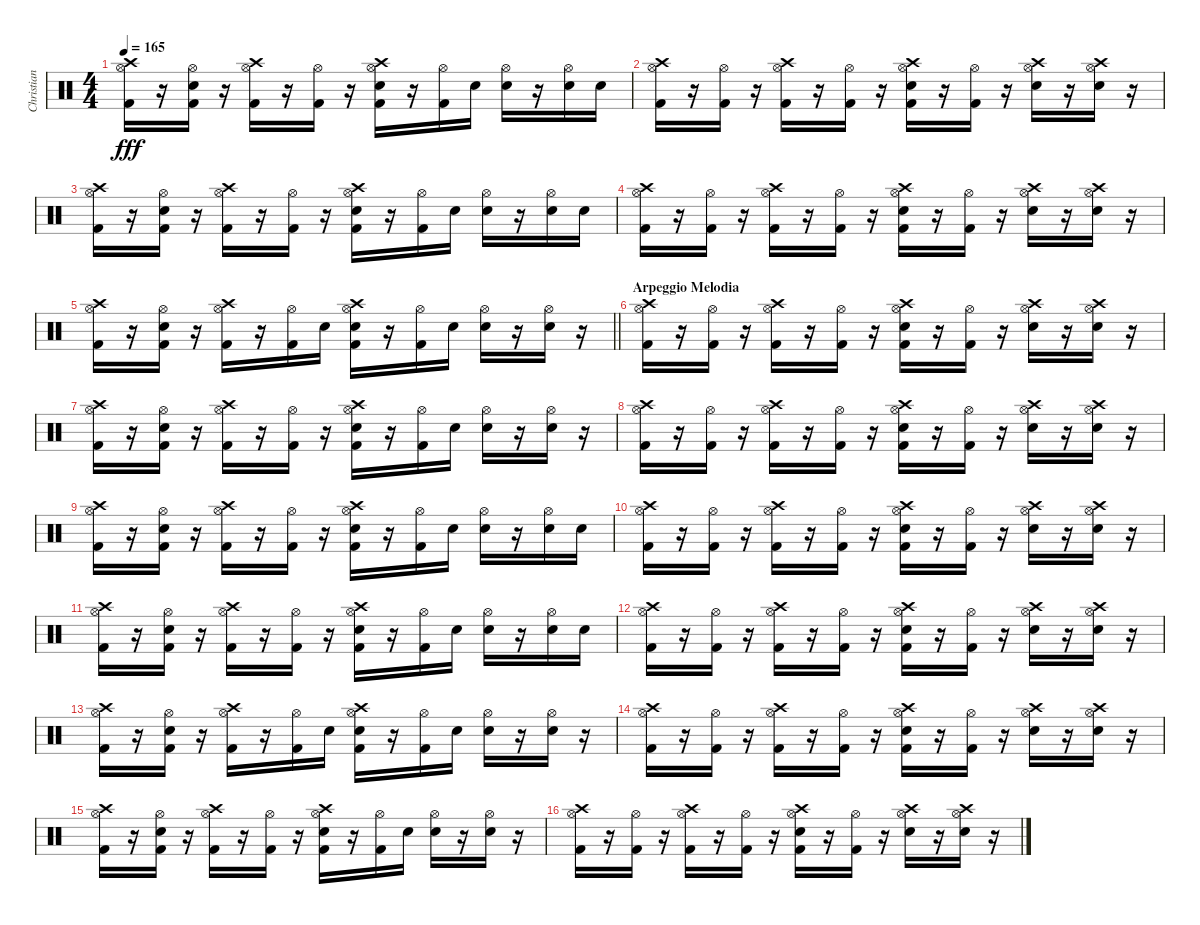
\track ("Christian Coma Mora (CC)" "Christian ") {instrument percussion}
\staff {score}
\articulation defaults
\ts (4 4)
\tempo 165
\clef neutral
\ks c
("Crash high (hit)" "Hi-Hat (open)" "Kick (hit) 2").16{dy fff} r.16 ("Hi-Hat (open)" "Snare (hit) 2" "Kick (hit) 2").16 r.16 ("Crash high (hit)" "Hi-Hat (open)" "Kick (hit) 2").16 r.16 ("Hi-Hat (open)" "Kick (hit) 2").16 r.16 ("Crash high (hit)" "Hi-Hat (open)" "Snare (hit) 2" "Kick (hit) 2").16 r.16 ("Hi-Hat (open)" "Kick (hit) 2").16 "Snare (hit) 2".16 ("Hi-Hat (open)" "Snare (hit) 2").16 r.16 ("Hi-Hat (open)" "Snare (hit) 2").16 "Snare (hit) 2".16 |
("Crash high (hit)" "Hi-Hat (open)" "Kick (hit) 2").16 r.16 ("Hi-Hat (open)" "Kick (hit) 2").16 r.16 ("Crash high (hit)" "Hi-Hat (open)" "Kick (hit) 2").16 r.16 ("Hi-Hat (open)" "Kick (hit) 2").16 r.16 ("Crash high (hit)" "Hi-Hat (open)" "Snare (hit) 2" "Kick (hit) 2").16 r.16 ("Hi-Hat (open)" "Kick (hit) 2").16 r.16 ("Crash high (hit)" "Hi-Hat (open)" "Snare (hit) 2").16 r.16 ("Crash high (hit)" "Hi-Hat (open)" "Snare (hit) 2").16 r.16 |
("Crash high (hit)" "Hi-Hat (open)" "Kick (hit) 2").16 r.16 ("Hi-Hat (open)" "Snare (hit) 2" "Kick (hit) 2").16 r.16 ("Crash high (hit)" "Hi-Hat (open)" "Kick (hit) 2").16 r.16 ("Hi-Hat (open)" "Kick (hit) 2").16 r.16 ("Crash high (hit)" "Hi-Hat (open)" "Snare (hit) 2" "Kick (hit) 2").16 r.16 ("Hi-Hat (open)" "Kick (hit) 2").16 "Snare (hit) 2".16 ("Hi-Hat (open)" "Snare (hit) 2").16 r.16 ("Hi-Hat (open)" "Snare (hit) 2").16 "Snare (hit) 2".16 |
("Crash high (hit)" "Hi-Hat (open)" "Kick (hit) 2").16 r.16 ("Hi-Hat (open)" "Kick (hit) 2").16 r.16 ("Crash high (hit)" "Hi-Hat (open)" "Kick (hit) 2").16 r.16 ("Hi-Hat (open)" "Kick (hit) 2").16 r.16 ("Crash high (hit)" "Hi-Hat (open)" "Snare (hit) 2" "Kick (hit) 2").16 r.16 ("Hi-Hat (open)" "Kick (hit) 2").16 r.16 ("Crash high (hit)" "Hi-Hat (open)" "Snare (hit) 2").16 r.16 ("Crash high (hit)" "Hi-Hat (open)" "Snare (hit) 2").16 r.16 |
\barLineRight lightlight
("Crash high (hit)" "Hi-Hat (open)" "Kick (hit) 2").16 r.16 ("Hi-Hat (open)" "Snare (hit) 2" "Kick (hit) 2").16 r.16 ("Crash high (hit)" "Hi-Hat (open)" "Kick (hit) 2").16 r.16 ("Hi-Hat (open)" "Kick (hit) 2").16 "Snare (hit) 2".16 ("Crash high (hit)" "Hi-Hat (open)" "Snare (hit) 2" "Kick (hit) 2").16 r.16 ("Hi-Hat (open)" "Kick (hit) 2").16 "Snare (hit) 2".16 ("Hi-Hat (open)" "Snare (hit) 2").16 r.16 ("Hi-Hat (open)" "Snare (hit) 2").16 r.16 |
\section ("" "Arpeggio Melodia")
("Crash high (hit)" "Hi-Hat (open)" "Kick (hit) 2").16 r.16 ("Hi-Hat (open)" "Kick (hit) 2").16 r.16 ("Crash high (hit)" "Hi-Hat (open)" "Kick (hit) 2").16 r.16 ("Hi-Hat (open)" "Kick (hit) 2").16 r.16 ("Crash high (hit)" "Hi-Hat (open)" "Snare (hit) 2" "Kick (hit) 2").16 r.16 ("Hi-Hat (open)" "Kick (hit) 2").16 r.16 ("Crash high (hit)" "Hi-Hat (open)" "Snare (hit) 2").16 r.16 ("Crash high (hit)" "Hi-Hat (open)" "Snare (hit) 2").16 r.16 |
("Crash high (hit)" "Hi-Hat (open)" "Kick (hit) 2").16 r.16 ("Hi-Hat (open)" "Snare (hit) 2" "Kick (hit) 2").16 r.16 ("Crash high (hit)" "Hi-Hat (open)" "Kick (hit) 2").16 r.16 ("Hi-Hat (open)" "Kick (hit) 2").16 r.16 ("Crash high (hit)" "Hi-Hat (open)" "Snare (hit) 2" "Kick (hit) 2").16 r.16 ("Hi-Hat (open)" "Kick (hit) 2").16 "Snare (hit) 2".16 ("Hi-Hat (open)" "Snare (hit) 2").16 r.16 ("Hi-Hat (open)" "Snare (hit) 2").16 r.16 |
("Crash high (hit)" "Hi-Hat (open)" "Kick (hit) 2").16 r.16 ("Hi-Hat (open)" "Kick (hit) 2").16 r.16 ("Crash high (hit)" "Hi-Hat (open)" "Kick (hit) 2").16 r.16 ("Hi-Hat (open)" "Kick (hit) 2").16 r.16 ("Crash high (hit)" "Hi-Hat (open)" "Snare (hit) 2" "Kick (hit) 2").16 r.16 ("Hi-Hat (open)" "Kick (hit) 2").16 r.16 ("Crash high (hit)" "Hi-Hat (open)" "Snare (hit) 2").16 r.16 ("Crash high (hit)" "Hi-Hat (open)" "Snare (hit) 2").16 r.16 |
("Crash high (hit)" "Hi-Hat (open)" "Kick (hit) 2").16 r.16 ("Hi-Hat (open)" "Snare (hit) 2" "Kick (hit) 2").16 r.16 ("Crash high (hit)" "Hi-Hat (open)" "Kick (hit) 2").16 r.16 ("Hi-Hat (open)" "Kick (hit) 2").16 r.16 ("Crash high (hit)" "Hi-Hat (open)" "Snare (hit) 2" "Kick (hit) 2").16 r.16 ("Hi-Hat (open)" "Kick (hit) 2").16 "Snare (hit) 2".16 ("Hi-Hat (open)" "Snare (hit) 2").16 r.16 ("Hi-Hat (open)" "Snare (hit) 2").16 "Snare (hit) 2".16 |
("Crash high (hit)" "Hi-Hat (open)" "Kick (hit) 2").16 r.16 ("Hi-Hat (open)" "Kick (hit) 2").16 r.16 ("Crash high (hit)" "Hi-Hat (open)" "Kick (hit) 2").16 r.16 ("Hi-Hat (open)" "Kick (hit) 2").16 r.16 ("Crash high (hit)" "Hi-Hat (open)" "Snare (hit) 2" "Kick (hit) 2").16 r.16 ("Hi-Hat (open)" "Kick (hit) 2").16 r.16 ("Crash high (hit)" "Hi-Hat (open)" "Snare (hit) 2").16 r.16 ("Crash high (hit)" "Hi-Hat (open)" "Snare (hit) 2").16 r.16 |
("Crash high (hit)" "Hi-Hat (open)" "Kick (hit) 2").16 r.16 ("Hi-Hat (open)" "Snare (hit) 2" "Kick (hit) 2").16 r.16 ("Crash high (hit)" "Hi-Hat (open)" "Kick (hit) 2").16 r.16 ("Hi-Hat (open)" "Kick (hit) 2").16 r.16 ("Crash high (hit)" "Hi-Hat (open)" "Snare (hit) 2" "Kick (hit) 2").16 r.16 ("Hi-Hat (open)" "Kick (hit) 2").16 "Snare (hit) 2".16 ("Hi-Hat (open)" "Snare (hit) 2").16 r.16 ("Hi-Hat (open)" "Snare (hit) 2").16 "Snare (hit) 2".16 |
("Crash high (hit)" "Hi-Hat (open)" "Kick (hit) 2").16 r.16 ("Hi-Hat (open)" "Kick (hit) 2").16 r.16 ("Crash high (hit)" "Hi-Hat (open)" "Kick (hit) 2").16 r.16 ("Hi-Hat (open)" "Kick (hit) 2").16 r.16 ("Crash high (hit)" "Hi-Hat (open)" "Snare (hit) 2" "Kick (hit) 2").16 r.16 ("Hi-Hat (open)" "Kick (hit) 2").16 r.16 ("Crash high (hit)" "Hi-Hat (open)" "Snare (hit) 2").16 r.16 ("Crash high (hit)" "Hi-Hat (open)" "Snare (hit) 2").16 r.16 |
("Crash high (hit)" "Hi-Hat (open)" "Kick (hit) 2").16 r.16 ("Hi-Hat (open)" "Snare (hit) 2" "Kick (hit) 2").16 r.16 ("Crash high (hit)" "Hi-Hat (open)" "Kick (hit) 2").16 r.16 ("Hi-Hat (open)" "Kick (hit) 2").16 "Snare (hit) 2".16 ("Crash high (hit)" "Hi-Hat (open)" "Snare (hit) 2" "Kick (hit) 2").16 r.16 ("Hi-Hat (open)" "Kick (hit) 2").16 "Snare (hit) 2".16 ("Hi-Hat (open)" "Snare (hit) 2").16 r.16 ("Hi-Hat (open)" "Snare (hit) 2").16 r.16 |
("Crash high (hit)" "Hi-Hat (open)" "Kick (hit) 2").16 r.16 ("Hi-Hat (open)" "Kick (hit) 2").16 r.16 ("Crash high (hit)" "Hi-Hat (open)" "Kick (hit) 2").16 r.16 ("Hi-Hat (open)" "Kick (hit) 2").16 r.16 ("Crash high (hit)" "Hi-Hat (open)" "Snare (hit) 2" "Kick (hit) 2").16 r.16 ("Hi-Hat (open)" "Kick (hit) 2").16 r.16 ("Crash high (hit)" "Hi-Hat (open)" "Snare (hit) 2").16 r.16 ("Crash high (hit)" "Hi-Hat (open)" "Snare (hit) 2").16 r.16 |
("Crash high (hit)" "Hi-Hat (open)" "Kick (hit) 2").16 r.16 ("Hi-Hat (open)" "Snare (hit) 2" "Kick (hit) 2").16 r.16 ("Crash high (hit)" "Hi-Hat (open)" "Kick (hit) 2").16 r.16 ("Hi-Hat (open)" "Kick (hit) 2").16 r.16 ("Crash high (hit)" "Hi-Hat (open)" "Snare (hit) 2" "Kick (hit) 2").16 r.16 ("Hi-Hat (open)" "Kick (hit) 2").16 "Snare (hit) 2".16 ("Hi-Hat (open)" "Snare (hit) 2").16 r.16 ("Hi-Hat (open)" "Snare (hit) 2").16 r.16 |
("Crash high (hit)" "Hi-Hat (open)" "Kick (hit) 2").16 r.16 ("Hi-Hat (open)" "Kick (hit) 2").16 r.16 ("Crash high (hit)" "Hi-Hat (open)" "Kick (hit) 2").16 r.16 ("Hi-Hat (open)" "Kick (hit) 2").16 r.16 ("Crash high (hit)" "Hi-Hat (open)" "Snare (hit) 2" "Kick (hit) 2").16 r.16 ("Hi-Hat (open)" "Kick (hit) 2").16 r.16 ("Crash high (hit)" "Hi-Hat (open)" "Snare (hit) 2").16 r.16 ("Crash high (hit)" "Hi-Hat (open)" "Snare (hit) 2").16 r.16
